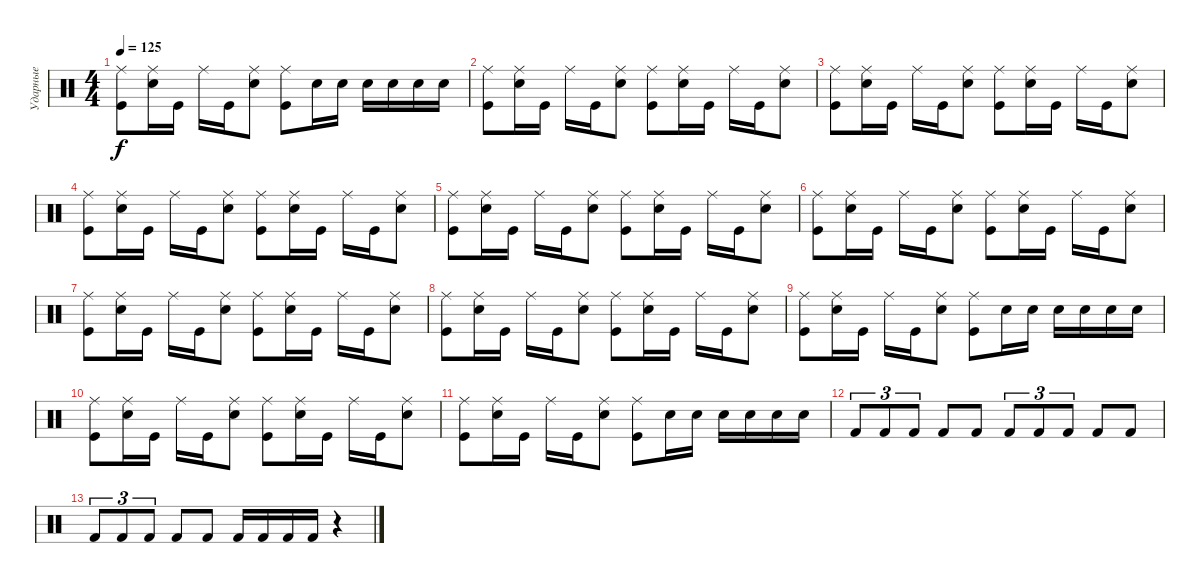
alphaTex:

\track ("Ударные" "Ударные") {instrument percussion}
\staff {score}
\articulation defaults
\ts (4 4)
\tempo 125
\clef neutral
\ks c
("Ride (middle)" "Kick (hit)").8{dy f} ("Ride (middle)" "Electric Snare (hit)").16 "Kick (hit)".16 "Ride (middle)".16 "Kick (hit)".16 ("Ride (middle)" "Electric Snare (hit)").8 ("Ride (middle)" "Kick (hit)").8 "Electric Snare (hit)".16 "Electric Snare (hit)".16 "Electric Snare (hit)".16 "Electric Snare (hit)".16 "Electric Snare (hit)".16 "Electric Snare (hit)".16 |
("Ride (middle)" "Kick (hit)").8 ("Ride (middle)" "Electric Snare (hit)").16 "Kick (hit)".16 "Ride (middle)".16 "Kick (hit)".16 ("Ride (middle)" "Electric Snare (hit)").8 ("Ride (middle)" "Kick (hit)").8 ("Ride (middle)" "Electric Snare (hit)").16 "Kick (hit)".16 "Ride (middle)".16 "Kick (hit)".16 ("Ride (middle)" "Electric Snare (hit)").8 |
("Ride (middle)" "Kick (hit)").8 ("Ride (middle)" "Electric Snare (hit)").16 "Kick (hit)".16 "Ride (middle)".16 "Kick (hit)".16 ("Ride (middle)" "Electric Snare (hit)").8 ("Ride (middle)" "Kick (hit)").8 ("Ride (middle)" "Electric Snare (hit)").16 "Kick (hit)".16 "Ride (middle)".16 "Kick (hit)".16 ("Ride (middle)" "Electric Snare (hit)").8 |
("Ride (middle)" "Kick (hit)").8 ("Ride (middle)" "Electric Snare (hit)").16 "Kick (hit)".16 "Ride (middle)".16 "Kick (hit)".16 ("Ride (middle)" "Electric Snare (hit)").8 ("Ride (middle)" "Kick (hit)").8 ("Ride (middle)" "Electric Snare (hit)").16 "Kick (hit)".16 "Ride (middle)".16 "Kick (hit)".16 ("Ride (middle)" "Electric Snare (hit)").8 |
("Ride (middle)" "Kick (hit)").8 ("Ride (middle)" "Electric Snare (hit)").16 "Kick (hit)".16 "Ride (middle)".16 "Kick (hit)".16 ("Ride (middle)" "Electric Snare (hit)").8 ("Ride (middle)" "Kick (hit)").8 ("Ride (middle)" "Electric Snare (hit)").16 "Kick (hit)".16 "Ride (middle)".16 "Kick (hit)".16 ("Ride (middle)" "Electric Snare (hit)").8 |
("Ride (middle)" "Kick (hit)").8 ("Ride (middle)" "Electric Snare (hit)").16 "Kick (hit)".16 "Ride (middle)".16 "Kick (hit)".16 ("Ride (middle)" "Electric Snare (hit)").8 ("Ride (middle)" "Kick (hit)").8 ("Ride (middle)" "Electric Snare (hit)").16 "Kick (hit)".16 "Ride (middle)".16 "Kick (hit)".16 ("Ride (middle)" "Electric Snare (hit)").8 |
("Ride (middle)" "Kick (hit)").8 ("Ride (middle)" "Electric Snare (hit)").16 "Kick (hit)".16 "Ride (middle)".16 "Kick (hit)".16 ("Ride (middle)" "Electric Snare (hit)").8 ("Ride (middle)" "Kick (hit)").8 ("Ride (middle)" "Electric Snare (hit)").16 "Kick (hit)".16 "Ride (middle)".16 "Kick (hit)".16 ("Ride (middle)" "Electric Snare (hit)").8 |
("Ride (middle)" "Kick (hit)").8 ("Ride (middle)" "Electric Snare (hit)").16 "Kick (hit)".16 "Ride (middle)".16 "Kick (hit)".16 ("Ride (middle)" "Electric Snare (hit)").8 ("Ride (middle)" "Kick (hit)").8 ("Ride (middle)" "Electric Snare (hit)").16 "Kick (hit)".16 "Ride (middle)".16 "Kick (hit)".16 ("Ride (middle)" "Electric Snare (hit)").8 |
("Ride (middle)" "Kick (hit)").8 ("Ride (middle)" "Electric Snare (hit)").16 "Kick (hit)".16 "Ride (middle)".16 "Kick (hit)".16 ("Ride (middle)" "Electric Snare (hit)").8 ("Ride (middle)" "Kick (hit)").8 "Electric Snare (hit)".16 "Electric Snare (hit)".16 "Electric Snare (hit)".16 "Electric Snare (hit)".16 "Electric Snare (hit)".16 "Electric Snare (hit)".16 |
("Ride (middle)" "Kick (hit)").8 ("Ride (middle)" "Electric Snare (hit)").16 "Kick (hit)".16 "Ride (middle)".16 "Kick (hit)".16 ("Ride (middle)" "Electric Snare (hit)").8 ("Ride (middle)" "Kick (hit)").8 ("Ride (middle)" "Electric Snare (hit)").16 "Kick (hit)".16 "Ride (middle)".16 "Kick (hit)".16 ("Ride (middle)" "Electric Snare (hit)").8 |
("Ride (middle)" "Kick (hit)").8 ("Ride (middle)" "Electric Snare (hit)").16 "Kick (hit)".16 "Ride (middle)".16 "Kick (hit)".16 ("Ride (middle)" "Electric Snare (hit)").8 ("Ride (middle)" "Kick (hit)").8 "Electric Snare (hit)".16 "Electric Snare (hit)".16 "Electric Snare (hit)".16 "Electric Snare (hit)".16 "Electric Snare (hit)".16 "Electric Snare (hit)".16 |
"Kick (hit) 2".8{tu (3 2)} "Kick (hit) 2".8{tu (3 2)} "Kick (hit) 2".8{tu (3 2)} "Kick (hit) 2".8 "Kick (hit) 2".8 "Kick (hit) 2".8{tu (3 2)} "Kick (hit) 2".8{tu (3 2)} "Kick (hit) 2".8{tu (3 2)} "Kick (hit) 2".8 "Kick (hit) 2".8 |
"Kick (hit) 2".8{tu (3 2)} "Kick (hit) 2".8{tu (3 2)} "Kick (hit) 2".8{tu (3 2)} "Kick (hit) 2".8 "Kick (hit) 2".8 "Kick (hit) 2".16 "Kick (hit) 2".16 "Kick (hit) 2".16 "Kick (hit) 2".16 r.4
